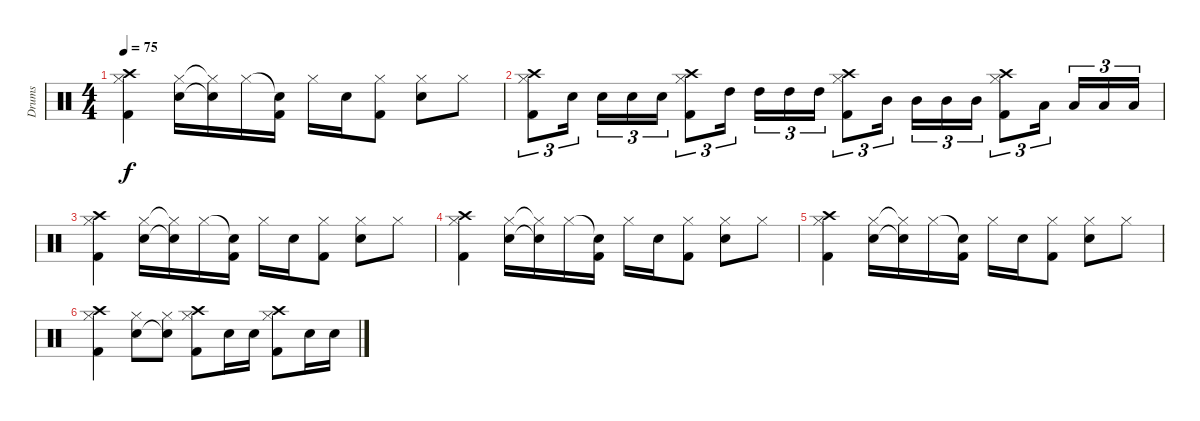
\track ("Drums" "Drums") {instrument percussion}
\staff {score}
\articulation defaults
\ts (4 4)
\tempo 75
\clef neutral
\ks c
("Hi-Hat (closed)" "Crash high (hit)" "Kick (hit) 2").4{dy f} ("Hi-Hat (closed)" "Electric Snare (hit)").16 ("Hi-Hat (closed)"{t} "Electric Snare (hit)"{t}).16 "Hi-Hat (closed)".16 ("Snare (hit)"{t} "Kick (hit) 2").16 "Hi-Hat (closed)".16 "Electric Snare (hit)".16 ("Hi-Hat (closed)" "Kick (hit) 2").8 ("Electric Snare (hit)" "Hi-Hat (closed)").8 "Hi-Hat (closed)".8 |
("Crash high (hit)" "Hi-Hat (closed)" "Kick (hit) 2").8{tu (3 2)} "Electric Snare (hit)".16{tu (3 2)} "Electric Snare (hit)".16{tu (3 2)} "Electric Snare (hit)".16{tu (3 2)} "Electric Snare (hit)".16{tu (3 2)} ("Crash high (hit)" "Hi-Hat (closed)" "Kick (hit) 2").8{tu (3 2)} "High Tom (hit)".16{tu (3 2)} "High Tom (hit)".16{tu (3 2)} "High Tom (hit)".16{tu (3 2)} "High Tom (hit)".16{tu (3 2)} ("Crash high (hit)" "Hi-Hat (closed)" "Kick (hit) 2").8{tu (3 2)} "Mid Tom (hit)".16{tu (3 2)} "Mid Tom (hit)".16{tu (3 2)} "Mid Tom (hit)".16{tu (3 2)} "Mid Tom (hit)".16{tu (3 2)} ("Crash high (hit)" "Hi-Hat (closed)" "Kick (hit) 2").8{tu (3 2)} "Low Tom (hit)".16{tu (3 2)} "Low Tom (hit)".16{tu (3 2)} "Low Tom (hit)".16{tu (3 2)} "Low Tom (hit)".16{tu (3 2)} |
("Hi-Hat (closed)" "Crash high (hit)" "Kick (hit) 2").4 ("Hi-Hat (closed)" "Electric Snare (hit)").16 ("Hi-Hat (closed)"{t} "Electric Snare (hit)"{t}).16 "Hi-Hat (closed)".16 ("Snare (hit)"{t} "Kick (hit) 2").16 "Hi-Hat (closed)".16 "Electric Snare (hit)".16 ("Hi-Hat (closed)" "Kick (hit) 2").8 ("Electric Snare (hit)" "Hi-Hat (closed)").8 "Hi-Hat (closed)".8 |
("Hi-Hat (closed)" "Crash high (hit)" "Kick (hit) 2").4 ("Hi-Hat (closed)" "Electric Snare (hit)").16 ("Hi-Hat (closed)"{t} "Electric Snare (hit)"{t}).16 "Hi-Hat (closed)".16 ("Snare (hit)"{t} "Kick (hit) 2").16 "Hi-Hat (closed)".16 "Electric Snare (hit)".16 ("Hi-Hat (closed)" "Kick (hit) 2").8 ("Electric Snare (hit)" "Hi-Hat (closed)").8 "Hi-Hat (closed)".8 |
("Hi-Hat (closed)" "Crash high (hit)" "Kick (hit) 2").4 ("Hi-Hat (closed)" "Electric Snare (hit)").16 ("Hi-Hat (closed)"{t} "Electric Snare (hit)"{t}).16 "Hi-Hat (closed)".16 ("Snare (hit)"{t} "Kick (hit) 2").16 "Hi-Hat (closed)".16 "Electric Snare (hit)".16 ("Hi-Hat (closed)" "Kick (hit) 2").8 ("Electric Snare (hit)" "Hi-Hat (closed)").8 "Hi-Hat (closed)".8 |
("Hi-Hat (closed)" "Crash high (hit)" "Kick (hit) 2").4 ("Hi-Hat (closed)" "Electric Snare (hit)").8 ("Hi-Hat (closed)" "Snare (hit)"{t}).8 ("Kick (hit) 2" "Crash high (hit)" "Hi-Hat (closed)").8 "Electric Snare (hit)".16 "Electric Snare (hit)".16 ("Kick (hit) 2" "Crash high (hit)" "Hi-Hat (closed)").8 "Electric Snare (hit)".16 "Electric Snare (hit)".16
